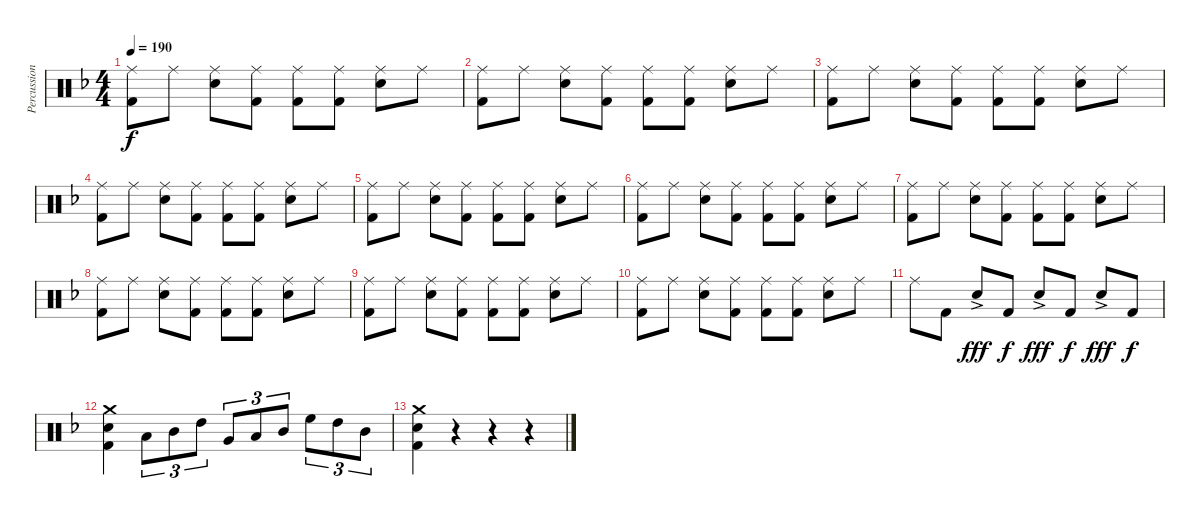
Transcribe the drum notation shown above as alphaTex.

\track ("Percussion" "Percussion") {instrument percussion}
\staff {score}
\articulation defaults
\ts (4 4)
\tempo 190
\clef neutral
\ks f
("Ride (middle)" "Kick (hit) 2").8{dy f} "Ride (middle)".8 ("Ride (middle)" "Snare (hit) 2").8 ("Ride (middle)" "Kick (hit) 2").8 ("Ride (middle)" "Kick (hit) 2").8 ("Ride (middle)" "Kick (hit) 2").8 ("Ride (middle)" "Snare (hit) 2").8 "Ride (middle)".8 |
("Ride (middle)" "Kick (hit) 2").8 "Ride (middle)".8 ("Ride (middle)" "Snare (hit) 2").8 ("Ride (middle)" "Kick (hit) 2").8 ("Ride (middle)" "Kick (hit) 2").8 ("Ride (middle)" "Kick (hit) 2").8 ("Ride (middle)" "Snare (hit) 2").8 "Ride (middle)".8 |
("Ride (middle)" "Kick (hit) 2").8 "Ride (middle)".8 ("Ride (middle)" "Snare (hit) 2").8 ("Ride (middle)" "Kick (hit) 2").8 ("Ride (middle)" "Kick (hit) 2").8 ("Ride (middle)" "Kick (hit) 2").8 ("Ride (middle)" "Snare (hit) 2").8 "Ride (middle)".8 |
("Ride (middle)" "Kick (hit) 2").8 "Ride (middle)".8 ("Ride (middle)" "Snare (hit) 2").8 ("Ride (middle)" "Kick (hit) 2").8 ("Ride (middle)" "Kick (hit) 2").8 ("Ride (middle)" "Kick (hit) 2").8 ("Ride (middle)" "Snare (hit) 2").8 "Ride (middle)".8 |
("Ride (middle)" "Kick (hit) 2").8 "Ride (middle)".8 ("Ride (middle)" "Snare (hit) 2").8 ("Ride (middle)" "Kick (hit) 2").8 ("Ride (middle)" "Kick (hit) 2").8 ("Ride (middle)" "Kick (hit) 2").8 ("Ride (middle)" "Snare (hit) 2").8 "Ride (middle)".8 |
("Ride (middle)" "Kick (hit) 2").8 "Ride (middle)".8 ("Ride (middle)" "Snare (hit) 2").8 ("Ride (middle)" "Kick (hit) 2").8 ("Ride (middle)" "Kick (hit) 2").8 ("Ride (middle)" "Kick (hit) 2").8 ("Ride (middle)" "Snare (hit) 2").8 "Ride (middle)".8 |
("Ride (middle)" "Kick (hit) 2").8 "Ride (middle)".8 ("Ride (middle)" "Snare (hit) 2").8 ("Ride (middle)" "Kick (hit) 2").8 ("Ride (middle)" "Kick (hit) 2").8 ("Ride (middle)" "Kick (hit) 2").8 ("Ride (middle)" "Snare (hit) 2").8 "Ride (middle)".8 |
("Ride (middle)" "Kick (hit) 2").8 "Ride (middle)".8 ("Ride (middle)" "Snare (hit) 2").8 ("Ride (middle)" "Kick (hit) 2").8 ("Ride (middle)" "Kick (hit) 2").8 ("Ride (middle)" "Kick (hit) 2").8 ("Ride (middle)" "Snare (hit) 2").8 "Ride (middle)".8 |
("Ride (middle)" "Kick (hit) 2").8 "Ride (middle)".8 ("Ride (middle)" "Snare (hit) 2").8 ("Ride (middle)" "Kick (hit) 2").8 ("Ride (middle)" "Kick (hit) 2").8 ("Ride (middle)" "Kick (hit) 2").8 ("Ride (middle)" "Snare (hit) 2").8 "Ride (middle)".8 |
("Ride (middle)" "Kick (hit) 2").8 "Ride (middle)".8 ("Ride (middle)" "Snare (hit) 2").8 ("Ride (middle)" "Kick (hit) 2").8 ("Ride (middle)" "Kick (hit) 2").8 ("Ride (middle)" "Kick (hit) 2").8 ("Ride (middle)" "Snare (hit) 2").8 "Ride (middle)".8 |
"Ride (middle)".8 "Kick (hit) 2".8 "Snare (hit) 2"{ac}.8{dy fff} "Kick (hit) 2".8{dy f} "Snare (hit) 2"{ac}.8{dy fff} "Kick (hit) 2".8{dy f} "Snare (hit) 2"{ac}.8{dy fff} "Kick (hit) 2".8{dy f} |
("Crash medium (hit)" "Snare (hit) 2" "Kick (hit) 2").4 "Low Tom (hit)".8{tu (3 2)} "Mid Tom (hit)".8{tu (3 2)} "High Tom (hit)".8{tu (3 2)} "Very Low Tom (hit)".8{tu (3 2)} "Low Tom (hit)".8{tu (3 2)} "Mid Tom (hit)".8{tu (3 2)} "High Floor Tom (hit)".8{tu (3 2)} "High Tom (hit)".8{tu (3 2)} "Mid Tom (hit)".8{tu (3 2)} |
("Crash medium (hit)" "Snare (hit) 2" "Kick (hit) 2").4 r.4 r.4 r.4
